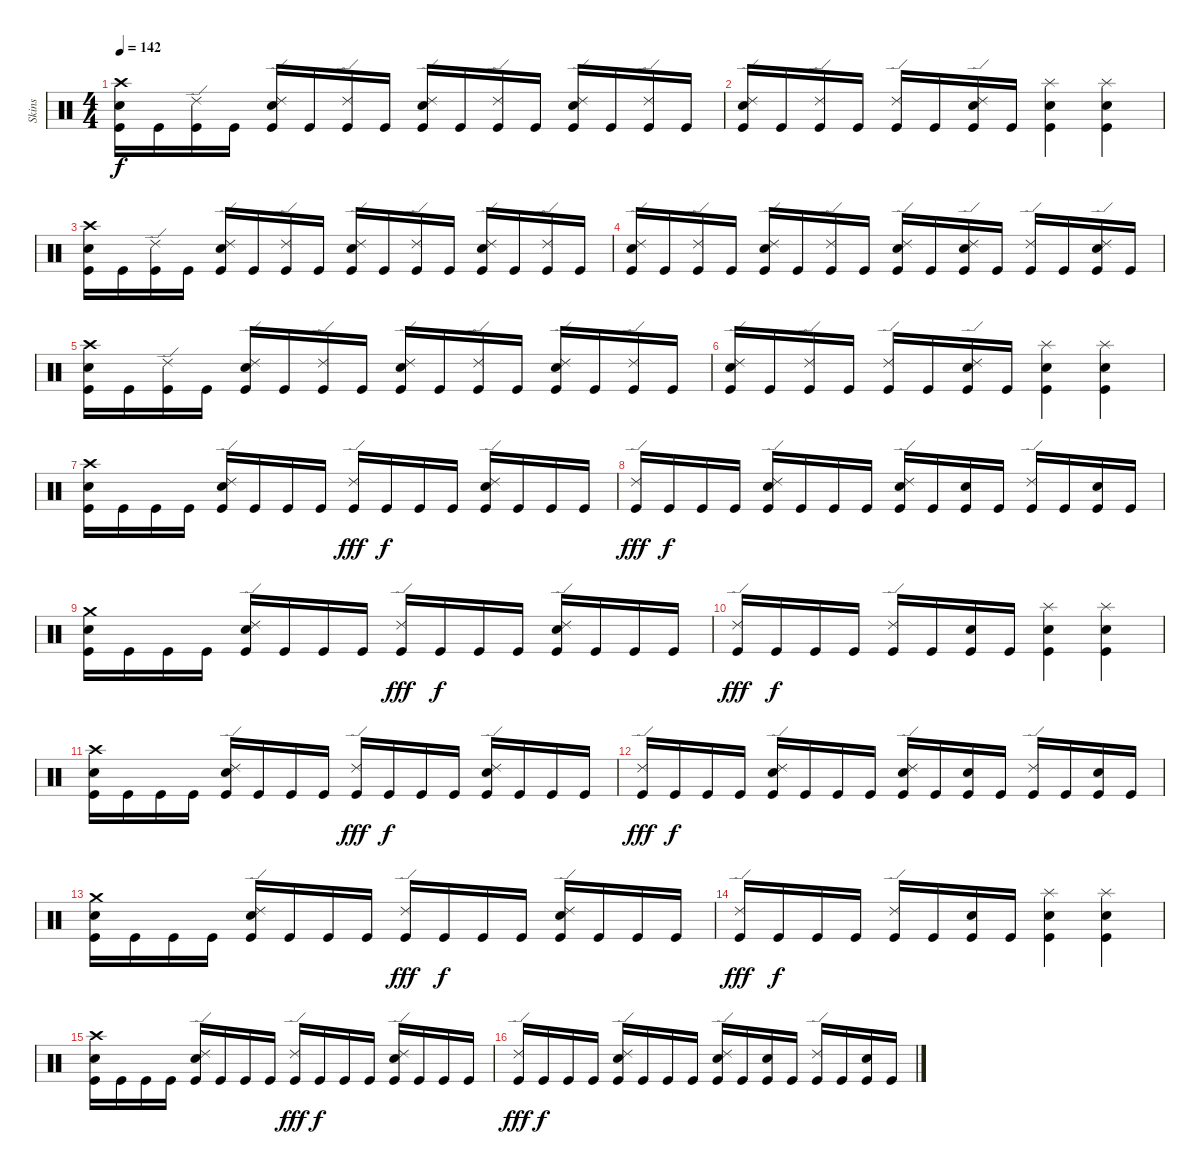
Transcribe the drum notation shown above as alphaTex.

\track ("Skins" "Skins") {instrument percussion}
\staff {score}
\articulation defaults
\ts (4 4)
\tempo 142
\clef neutral
\ks c
("Crash high (hit)" "Snare (hit) 2" "Kick (hit)").16{dy f} "Kick (hit)".16 ("Ride (edge) 2" "Kick (hit)").16 "Kick (hit)".16 ("Ride (edge) 2" "Electric Snare (hit)" "Kick (hit)").16 "Kick (hit)".16 ("Ride (edge) 2" "Kick (hit)").16 "Kick (hit)".16 ("Ride (edge) 2" "Electric Snare (hit)" "Kick (hit)").16 "Kick (hit)".16 ("Ride (edge) 2" "Kick (hit)").16 "Kick (hit)".16 ("Ride (edge) 2" "Electric Snare (hit)" "Kick (hit)").16 "Kick (hit)".16 ("Ride (edge) 2" "Kick (hit)").16 "Kick (hit)".16 |
("Ride (edge) 2" "Electric Snare (hit)" "Kick (hit)").16 "Kick (hit)".16 ("Ride (edge) 2" "Kick (hit)").16 "Kick (hit)".16 ("Ride (edge) 2" "Kick (hit)").16 "Kick (hit)".16 ("Ride (edge) 2" "Snare (hit) 2" "Kick (hit)").16 "Kick (hit)".16 ("Splash (hit)" "Snare (hit) 2" "Kick (hit)").4 ("Splash (hit)" "Electric Snare (hit)" "Kick (hit)").4 |
("Crash high (hit)" "Snare (hit) 2" "Kick (hit)").16 "Kick (hit)".16 ("Ride (edge) 2" "Kick (hit)").16 "Kick (hit)".16 ("Ride (edge) 2" "Electric Snare (hit)" "Kick (hit)").16 "Kick (hit)".16 ("Ride (edge) 2" "Kick (hit)").16 "Kick (hit)".16 ("Ride (edge) 2" "Electric Snare (hit)" "Kick (hit)").16 "Kick (hit)".16 ("Ride (edge) 2" "Kick (hit)").16 "Kick (hit)".16 ("Ride (edge) 2" "Electric Snare (hit)" "Kick (hit)").16 "Kick (hit)".16 ("Ride (edge) 2" "Kick (hit)").16 "Kick (hit)".16 |
("Ride (edge) 2" "Electric Snare (hit)" "Kick (hit)").16 "Kick (hit)".16 ("Ride (edge) 2" "Kick (hit)").16 "Kick (hit)".16 ("Ride (edge) 2" "Electric Snare (hit)" "Kick (hit)").16 "Kick (hit)".16 ("Ride (edge) 2" "Kick (hit)").16 "Kick (hit)".16 ("Ride (edge) 2" "Snare (hit) 2" "Kick (hit)").16 "Kick (hit)".16 ("Ride (edge) 2" "Snare (hit) 2" "Kick (hit)").16 "Kick (hit)".16 ("Ride (edge) 2" "Kick (hit)").16 "Kick (hit)".16 ("Ride (edge) 2" "Snare (hit) 2" "Kick (hit)").16 "Kick (hit)".16 |
("Crash high (hit)" "Snare (hit) 2" "Kick (hit)").16 "Kick (hit)".16 ("Ride (edge) 2" "Kick (hit)").16 "Kick (hit)".16 ("Ride (edge) 2" "Electric Snare (hit)" "Kick (hit)").16 "Kick (hit)".16 ("Ride (edge) 2" "Kick (hit)").16 "Kick (hit)".16 ("Ride (edge) 2" "Electric Snare (hit)" "Kick (hit)").16 "Kick (hit)".16 ("Ride (edge) 2" "Kick (hit)").16 "Kick (hit)".16 ("Ride (edge) 2" "Electric Snare (hit)" "Kick (hit)").16 "Kick (hit)".16 ("Ride (edge) 2" "Kick (hit)").16 "Kick (hit)".16 |
("Ride (edge) 2" "Electric Snare (hit)" "Kick (hit)").16 "Kick (hit)".16 ("Ride (edge) 2" "Kick (hit)").16 "Kick (hit)".16 ("Ride (edge) 2" "Kick (hit)").16 "Kick (hit)".16 ("Ride (edge) 2" "Snare (hit) 2" "Kick (hit)").16 "Kick (hit)".16 ("Splash (hit)" "Snare (hit) 2" "Kick (hit)").4 ("Splash (hit)" "Electric Snare (hit)" "Kick (hit)").4 |
("Crash high (hit)" "Snare (hit) 2" "Kick (hit)").16 "Kick (hit)".16 "Kick (hit)".16 "Kick (hit)".16 ("Ride (edge) 2" "Snare (hit) 2" "Kick (hit)").16 "Kick (hit)".16 "Kick (hit)".16 "Kick (hit)".16 ("Ride (edge) 2" "Kick (hit)").16{dy fff} "Kick (hit)".16{dy f} "Kick (hit)".16 "Kick (hit)".16 ("Ride (edge) 2" "Snare (hit) 2" "Kick (hit)").16 "Kick (hit)".16 "Kick (hit)".16 "Kick (hit)".16 |
("Ride (edge) 2" "Kick (hit)").16{dy fff} "Kick (hit)".16{dy f} "Kick (hit)".16 "Kick (hit)".16 ("Ride (edge) 2" "Snare (hit) 2" "Kick (hit)").16 "Kick (hit)".16 "Kick (hit)".16 "Kick (hit)".16 ("Ride (edge) 2" "Electric Snare (hit)" "Kick (hit)").16 "Kick (hit)".16 ("Electric Snare (hit)" "Kick (hit)").16 "Kick (hit)".16 ("Ride (edge) 2" "Kick (hit)").16 "Kick (hit)".16 ("Electric Snare (hit)" "Kick (hit)").16 "Kick (hit)".16 |
("Crash medium (hit)" "Electric Snare (hit)" "Kick (hit)").16 "Kick (hit)".16 "Kick (hit)".16 "Kick (hit)".16 ("Ride (edge) 2" "Snare (hit) 2" "Kick (hit)").16 "Kick (hit)".16 "Kick (hit)".16 "Kick (hit)".16 ("Ride (edge) 2" "Kick (hit)").16{dy fff} "Kick (hit)".16{dy f} "Kick (hit)".16 "Kick (hit)".16 ("Ride (edge) 2" "Snare (hit) 2" "Kick (hit)").16 "Kick (hit)".16 "Kick (hit)".16 "Kick (hit)".16 |
("Ride (edge) 2" "Kick (hit)").16{dy fff} "Kick (hit)".16{dy f} "Kick (hit)".16 "Kick (hit)".16 ("Ride (edge) 2" "Kick (hit)").16 "Kick (hit)".16 ("Snare (hit) 2" "Kick (hit)").16 "Kick (hit)".16 ("Splash (hit)" "Snare (hit) 2" "Kick (hit)").4 ("Splash (hit)" "Electric Snare (hit)" "Kick (hit)").4 |
("Crash high (hit)" "Snare (hit) 2" "Kick (hit)").16 "Kick (hit)".16 "Kick (hit)".16 "Kick (hit)".16 ("Ride (edge) 2" "Snare (hit) 2" "Kick (hit)").16 "Kick (hit)".16 "Kick (hit)".16 "Kick (hit)".16 ("Ride (edge) 2" "Kick (hit)").16{dy fff} "Kick (hit)".16{dy f} "Kick (hit)".16 "Kick (hit)".16 ("Ride (edge) 2" "Snare (hit) 2" "Kick (hit)").16 "Kick (hit)".16 "Kick (hit)".16 "Kick (hit)".16 |
("Ride (edge) 2" "Kick (hit)").16{dy fff} "Kick (hit)".16{dy f} "Kick (hit)".16 "Kick (hit)".16 ("Ride (edge) 2" "Snare (hit) 2" "Kick (hit)").16 "Kick (hit)".16 "Kick (hit)".16 "Kick (hit)".16 ("Ride (edge) 2" "Electric Snare (hit)" "Kick (hit)").16 "Kick (hit)".16 ("Electric Snare (hit)" "Kick (hit)").16 "Kick (hit)".16 ("Ride (edge) 2" "Kick (hit)").16 "Kick (hit)".16 ("Electric Snare (hit)" "Kick (hit)").16 "Kick (hit)".16 |
("Crash medium (hit)" "Electric Snare (hit)" "Kick (hit)").16 "Kick (hit)".16 "Kick (hit)".16 "Kick (hit)".16 ("Ride (edge) 2" "Snare (hit) 2" "Kick (hit)").16 "Kick (hit)".16 "Kick (hit)".16 "Kick (hit)".16 ("Ride (edge) 2" "Kick (hit)").16{dy fff} "Kick (hit)".16{dy f} "Kick (hit)".16 "Kick (hit)".16 ("Ride (edge) 2" "Snare (hit) 2" "Kick (hit)").16 "Kick (hit)".16 "Kick (hit)".16 "Kick (hit)".16 |
("Ride (edge) 2" "Kick (hit)").16{dy fff} "Kick (hit)".16{dy f} "Kick (hit)".16 "Kick (hit)".16 ("Ride (edge) 2" "Kick (hit)").16 "Kick (hit)".16 ("Snare (hit) 2" "Kick (hit)").16 "Kick (hit)".16 ("Splash (hit)" "Snare (hit) 2" "Kick (hit)").4 ("Splash (hit)" "Electric Snare (hit)" "Kick (hit)").4 |
("Crash high (hit)" "Snare (hit) 2" "Kick (hit)").16 "Kick (hit)".16 "Kick (hit)".16 "Kick (hit)".16 ("Ride (edge) 2" "Snare (hit) 2" "Kick (hit)").16 "Kick (hit)".16 "Kick (hit)".16 "Kick (hit)".16 ("Ride (edge) 2" "Kick (hit)").16{dy fff} "Kick (hit)".16{dy f} "Kick (hit)".16 "Kick (hit)".16 ("Ride (edge) 2" "Snare (hit) 2" "Kick (hit)").16 "Kick (hit)".16 "Kick (hit)".16 "Kick (hit)".16 |
("Ride (edge) 2" "Kick (hit)").16{dy fff} "Kick (hit)".16{dy f} "Kick (hit)".16 "Kick (hit)".16 ("Ride (edge) 2" "Snare (hit) 2" "Kick (hit)").16 "Kick (hit)".16 "Kick (hit)".16 "Kick (hit)".16 ("Ride (edge) 2" "Electric Snare (hit)" "Kick (hit)").16 "Kick (hit)".16 ("Electric Snare (hit)" "Kick (hit)").16 "Kick (hit)".16 ("Ride (edge) 2" "Kick (hit)").16 "Kick (hit)".16 ("Electric Snare (hit)" "Kick (hit)").16 "Kick (hit)".16
